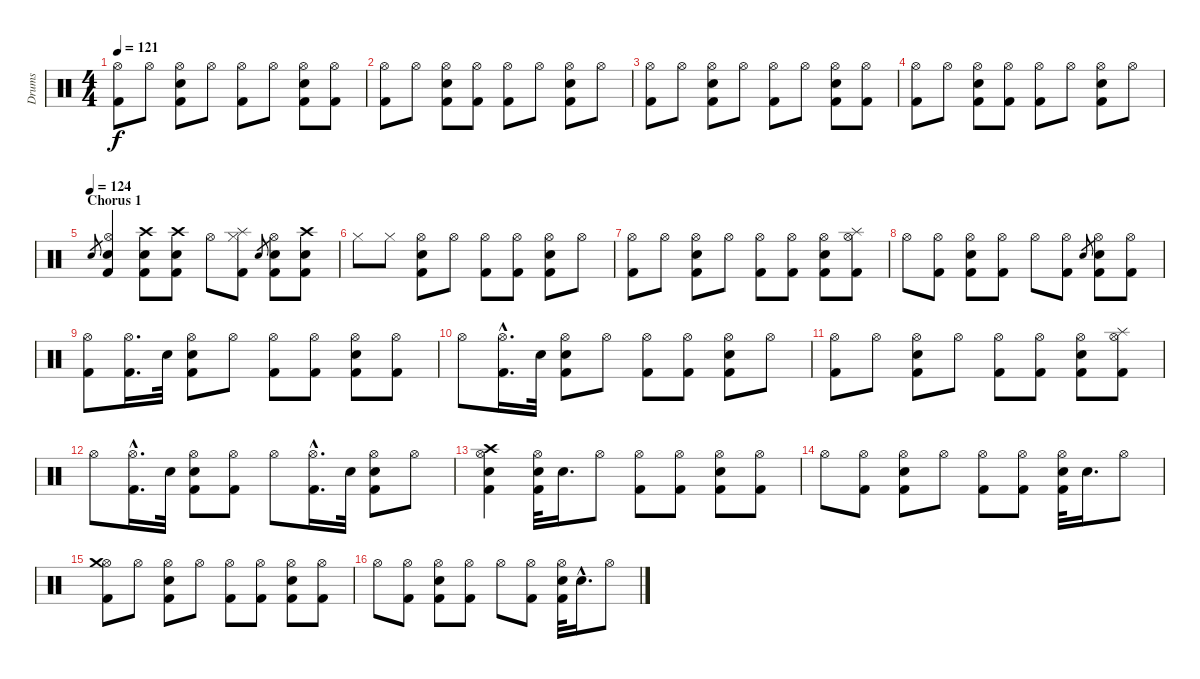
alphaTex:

\track ("Drums" "Drums") {instrument percussion}
\staff {score}
\articulation defaults
\ts (4 4)
\tempo 121
\clef neutral
\ks c
("Kick (hit) 2" "Hi-Hat (open)").8{dy f} "Hi-Hat (open)".8 ("Hi-Hat (open)" "Snare (hit) 2" "Kick (hit) 2").8 "Hi-Hat (open)".8 ("Kick (hit) 2" "Hi-Hat (open)").8 "Hi-Hat (open)".8 ("Snare (hit) 2" "Kick (hit) 2" "Hi-Hat (open)").8 ("Kick (hit) 2" "Hi-Hat (open)").8 |
("Kick (hit) 2" "Hi-Hat (open)").8 "Hi-Hat (open)".8 ("Snare (hit) 2" "Kick (hit) 2" "Hi-Hat (open)").8 ("Hi-Hat (open)" "Kick (hit) 2").8 ("Kick (hit) 2" "Hi-Hat (open)").8 "Hi-Hat (open)".8 ("Hi-Hat (open)" "Kick (hit) 2" "Snare (hit) 2").8 "Hi-Hat (open)".8 |
("Kick (hit) 2" "Hi-Hat (open)").8 "Hi-Hat (open)".8 ("Snare (hit) 2" "Hi-Hat (open)" "Kick (hit) 2").8 "Hi-Hat (open)".8 ("Kick (hit) 2" "Hi-Hat (open)").8 "Hi-Hat (open)".8 ("Hi-Hat (open)" "Snare (hit) 2" "Kick (hit) 2").8 ("Kick (hit) 2" "Hi-Hat (open)").8 |
("Hi-Hat (open)" "Kick (hit) 2").8 "Hi-Hat (open)".8 ("Kick (hit) 2" "Snare (hit) 2" "Hi-Hat (open)").8 ("Hi-Hat (open)" "Kick (hit) 2").8 ("Hi-Hat (open)" "Kick (hit) 2").8 "Hi-Hat (open)".8 ("Kick (hit) 2" "Snare (hit) 2" "Hi-Hat (open)").8 "Hi-Hat (open)".8 |
\section ("" "Chorus 1")
\tempo (124)
"Snare (hit) 2".8{gr} ("Hi-Hat (open)" "Snare (hit) 2" "Kick (hit) 2").4 ("Crash high (hit)" "Kick (hit) 2" "Snare (hit) 2").8 ("Crash high (hit)" "Kick (hit) 2" "Snare (hit) 2").8 "Hi-Hat (open)".8 ("Kick (hit) 2" "Hi-Hat (closed)" "Splash (hit)").8 "Snare (hit) 2".8{gr} ("Kick (hit) 2" "Snare (hit) 2" "Hi-Hat (open)").8 ("Snare (hit) 2" "Crash high (hit)" "Kick (hit) 2").8 |
"Hi-Hat (closed)".8 "Hi-Hat (closed)".8 ("Snare (hit) 2" "Kick (hit) 2" "Hi-Hat (open)").8 "Hi-Hat (open)".8 ("Hi-Hat (open)" "Kick (hit) 2").8 ("Kick (hit) 2" "Hi-Hat (open)").8 ("Hi-Hat (open)" "Snare (hit) 2" "Kick (hit) 2").8 "Hi-Hat (open)".8 |
("Hi-Hat (open)" "Kick (hit) 2").8 "Hi-Hat (open)".8 ("Snare (hit) 2" "Kick (hit) 2" "Hi-Hat (open)").8 "Hi-Hat (open)".8 ("Hi-Hat (open)" "Kick (hit) 2").8 ("Hi-Hat (open)" "Kick (hit) 2").8 ("Snare (hit) 2" "Hi-Hat (open)" "Kick (hit) 2").8 ("Hi-Hat (open)" "Splash (hit)" "Kick (hit) 2").8 |
"Hi-Hat (open)".8 ("Kick (hit) 2" "Hi-Hat (open)").8 ("Snare (hit) 2" "Hi-Hat (open)" "Kick (hit) 2").8 ("Kick (hit) 2" "Hi-Hat (open)").8 "Hi-Hat (open)".8 ("Hi-Hat (open)" "Kick (hit) 2").8 "Snare (hit) 2".8{gr} ("Snare (hit) 2" "Hi-Hat (open)" "Kick (hit) 2").8 ("Kick (hit) 2" "Hi-Hat (open)").8 |
("Hi-Hat (open)" "Kick (hit) 2").8 ("Hi-Hat (open)" "Kick (hit) 2").16{d} "Snare (hit) 2".32 ("Snare (hit) 2" "Kick (hit) 2" "Hi-Hat (open)").8 "Hi-Hat (open)".8 ("Hi-Hat (open)" "Kick (hit) 2").8 ("Hi-Hat (open)" "Kick (hit) 2").8 ("Kick (hit) 2" "Hi-Hat (open)" "Snare (hit) 2").8 ("Kick (hit) 2" "Hi-Hat (open)").8 |
"Hi-Hat (open)".8 ("Hi-Hat (open)" "Kick (hit) 2"{hac}).16{d} "Snare (hit) 2".32 ("Snare (hit) 2" "Hi-Hat (open)" "Kick (hit) 2").8 "Hi-Hat (open)".8 ("Hi-Hat (open)" "Kick (hit) 2").8 ("Kick (hit) 2" "Hi-Hat (open)").8 ("Hi-Hat (open)" "Kick (hit) 2" "Snare (hit) 2").8 "Hi-Hat (open)".8 |
("Kick (hit) 2" "Hi-Hat (open)").8 "Hi-Hat (open)".8 ("Hi-Hat (open)" "Kick (hit) 2" "Snare (hit) 2").8 "Hi-Hat (open)".8 ("Hi-Hat (open)" "Kick (hit) 2").8 ("Hi-Hat (open)" "Kick (hit) 2").8 ("Hi-Hat (open)" "Kick (hit) 2" "Snare (hit) 2").8 ("Kick (hit) 2" "Hi-Hat (open)" "Splash (hit)").8 |
"Hi-Hat (open)".8 ("Kick (hit) 2"{hac} "Hi-Hat (open)").16{d} "Snare (hit) 2".32 ("Kick (hit) 2" "Hi-Hat (open)" "Snare (hit) 2").8 ("Hi-Hat (open)" "Kick (hit) 2").8 "Hi-Hat (open)".8 ("Kick (hit) 2"{hac} "Hi-Hat (open)").16{d} "Snare (hit) 2".32 ("Snare (hit) 2" "Hi-Hat (open)" "Kick (hit) 2").8 "Hi-Hat (open)".8 |
("Snare (hit) 2" "Hi-Hat (open)" "Crash high (hit)" "Kick (hit) 2").4 ("Snare (hit) 2" "Hi-Hat (open)" "Kick (hit) 2").32 "Snare (hit) 2".16{d} "Hi-Hat (open)".8 ("Kick (hit) 2" "Hi-Hat (open)").8 ("Kick (hit) 2" "Hi-Hat (open)").8 ("Snare (hit) 2" "Hi-Hat (open)" "Kick (hit) 2").8 ("Hi-Hat (open)" "Kick (hit) 2").8 |
"Hi-Hat (open)".8 ("Hi-Hat (open)" "Kick (hit) 2").8 ("Snare (hit) 2" "Kick (hit) 2" "Hi-Hat (open)").8 "Hi-Hat (open)".8 ("Kick (hit) 2" "Hi-Hat (open)").8 ("Hi-Hat (open)" "Kick (hit) 2").8 ("Snare (hit) 2" "Kick (hit) 2" "Hi-Hat (open)").32 "Snare (hit) 2".16{d} "Hi-Hat (open)".8 |
("Hi-Hat (open)" "Kick (hit) 2" "Crash medium (hit)").8 "Hi-Hat (open)".8 ("Snare (hit) 2" "Hi-Hat (open)" "Kick (hit) 2").8 "Hi-Hat (open)".8 ("Kick (hit) 2" "Hi-Hat (open)").8 ("Kick (hit) 2" "Hi-Hat (open)").8 ("Snare (hit) 2" "Kick (hit) 2" "Hi-Hat (open)").8 ("Hi-Hat (open)" "Kick (hit) 2").8 |
"Hi-Hat (open)".8 ("Hi-Hat (open)" "Kick (hit) 2").8 ("Hi-Hat (open)" "Kick (hit) 2" "Snare (hit) 2").8 ("Hi-Hat (open)" "Kick (hit) 2").8 "Hi-Hat (open)".8 ("Hi-Hat (open)" "Kick (hit) 2").8 ("Snare (hit) 2" "Kick (hit) 2" "Hi-Hat (open)").32 "Snare (hit) 2"{hac}.16{d} "Hi-Hat (open)".8
